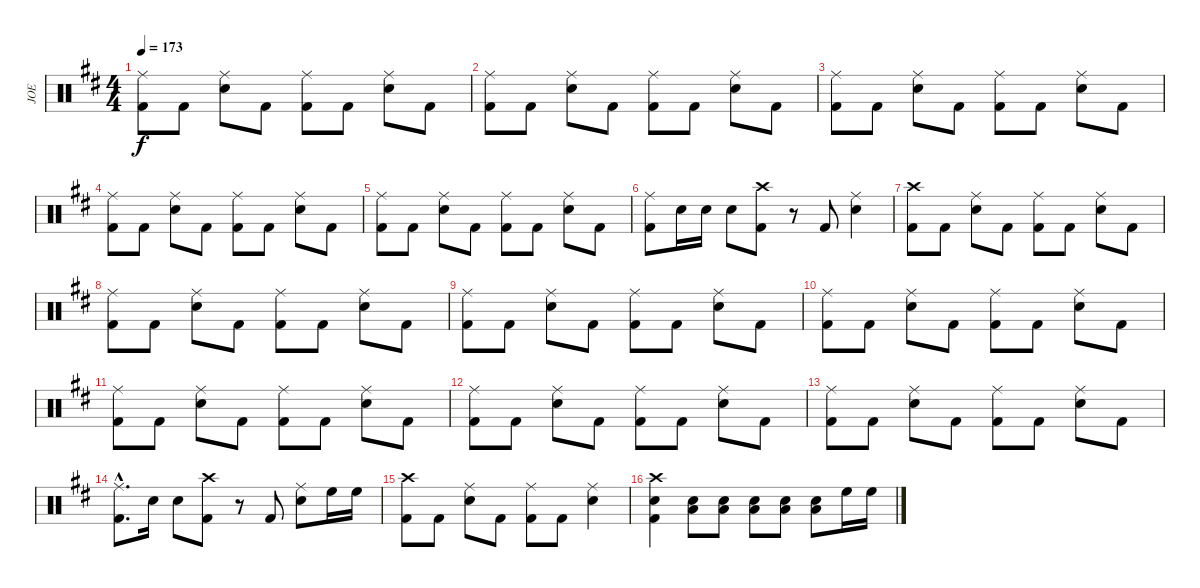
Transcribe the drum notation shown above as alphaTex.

\track ("JOE" "JOE") {instrument percussion}
\staff {score}
\articulation defaults
\ts (4 4)
\tempo 173
\clef neutral
\ks bminor
("Ride (middle)" "Kick (hit) 2").8{dy f} "Kick (hit) 2".8 ("Ride (middle)" "Snare (hit) 2").8 "Kick (hit) 2".8 ("Ride (middle)" "Kick (hit) 2").8 "Kick (hit) 2".8 ("Ride (middle)" "Snare (hit) 2").8 "Kick (hit) 2".8 |
("Ride (middle)" "Kick (hit) 2").8 "Kick (hit) 2".8 ("Ride (middle)" "Snare (hit) 2").8 "Kick (hit) 2".8 ("Ride (middle)" "Kick (hit) 2").8 "Kick (hit) 2".8 ("Ride (middle)" "Snare (hit) 2").8 "Kick (hit) 2".8 |
("Ride (middle)" "Kick (hit) 2").8 "Kick (hit) 2".8 ("Ride (middle)" "Snare (hit) 2").8 "Kick (hit) 2".8 ("Ride (middle)" "Kick (hit) 2").8 "Kick (hit) 2".8 ("Ride (middle)" "Snare (hit) 2").8 "Kick (hit) 2".8 |
("Ride (middle)" "Kick (hit) 2").8 "Kick (hit) 2".8 ("Ride (middle)" "Snare (hit) 2").8 "Kick (hit) 2".8 ("Ride (middle)" "Kick (hit) 2").8 "Kick (hit) 2".8 ("Ride (middle)" "Snare (hit) 2").8 "Kick (hit) 2".8 |
("Ride (middle)" "Kick (hit) 2").8 "Kick (hit) 2".8 ("Ride (middle)" "Snare (hit) 2").8 "Kick (hit) 2".8 ("Ride (middle)" "Kick (hit) 2").8 "Kick (hit) 2".8 ("Ride (middle)" "Snare (hit) 2").8 "Kick (hit) 2".8 |
("Ride (middle)" "Kick (hit) 2").8 "Snare (hit) 2".16 "Snare (hit) 2".16 "Snare (hit) 2".8 ("Crash high (hit)" "Kick (hit) 2").8 r.8 "Kick (hit) 2".8 ("Ride (middle)" "Snare (hit) 2").4 |
("Crash high (hit)" "Kick (hit) 2").8 "Kick (hit) 2".8 ("Ride (middle)" "Snare (hit) 2").8 "Kick (hit) 2".8 ("Ride (middle)" "Kick (hit) 2").8 "Kick (hit) 2".8 ("Ride (middle)" "Snare (hit) 2").8 "Kick (hit) 2".8 |
("Ride (middle)" "Kick (hit) 2").8 "Kick (hit) 2".8 ("Ride (middle)" "Snare (hit) 2").8 "Kick (hit) 2".8 ("Ride (middle)" "Kick (hit) 2").8 "Kick (hit) 2".8 ("Ride (middle)" "Snare (hit) 2").8 "Kick (hit) 2".8 |
("Ride (middle)" "Kick (hit) 2").8 "Kick (hit) 2".8 ("Ride (middle)" "Snare (hit) 2").8 "Kick (hit) 2".8 ("Ride (middle)" "Kick (hit) 2").8 "Kick (hit) 2".8 ("Ride (middle)" "Snare (hit) 2").8 "Kick (hit) 2".8 |
("Ride (middle)" "Kick (hit) 2").8 "Kick (hit) 2".8 ("Ride (middle)" "Snare (hit) 2").8 "Kick (hit) 2".8 ("Ride (middle)" "Kick (hit) 2").8 "Kick (hit) 2".8 ("Ride (middle)" "Snare (hit) 2").8 "Kick (hit) 2".8 |
("Ride (middle)" "Kick (hit) 2").8 "Kick (hit) 2".8 ("Ride (middle)" "Snare (hit) 2").8 "Kick (hit) 2".8 ("Ride (middle)" "Kick (hit) 2").8 "Kick (hit) 2".8 ("Ride (middle)" "Snare (hit) 2").8 "Kick (hit) 2".8 |
("Ride (middle)" "Kick (hit) 2").8 "Kick (hit) 2".8 ("Ride (middle)" "Snare (hit) 2").8 "Kick (hit) 2".8 ("Ride (middle)" "Kick (hit) 2").8 "Kick (hit) 2".8 ("Ride (middle)" "Snare (hit) 2").8 "Kick (hit) 2".8 |
("Ride (middle)" "Kick (hit) 2").8 "Kick (hit) 2".8 ("Ride (middle)" "Snare (hit) 2").8 "Kick (hit) 2".8 ("Ride (middle)" "Kick (hit) 2").8 "Kick (hit) 2".8 ("Ride (middle)" "Snare (hit) 2").8 "Kick (hit) 2".8 |
("Ride (middle)"{hac} "Kick (hit) 2"{hac}).8{d} "Snare (hit) 2".16 "Snare (hit) 2".8 ("Crash high (hit)" "Kick (hit) 2").8 r.8 "Kick (hit) 2".8 ("Ride (middle)" "Snare (hit) 2").8 "High Floor Tom (hit)".16 "High Floor Tom (hit)".16 |
("Crash high (hit)" "Kick (hit) 2").8 "Kick (hit) 2".8 ("Ride (middle)" "Snare (hit) 2").8 "Kick (hit) 2".8 ("Ride (middle)" "Kick (hit) 2").8 "Kick (hit) 2".8 ("Ride (middle)" "Snare (hit) 2").4 |
("Crash high (hit)" "Snare (hit) 2" "Kick (hit) 2").4 ("Snare (hit) 2" "Low Floor Tom (hit)").8 ("Snare (hit) 2" "Low Floor Tom (hit)").8 ("Snare (hit) 2" "Low Floor Tom (hit)").8 ("Snare (hit) 2" "Low Floor Tom (hit)").8 ("Snare (hit) 2" "Low Floor Tom (hit)").8 "High Floor Tom (hit)".16 "High Floor Tom (hit)".16
